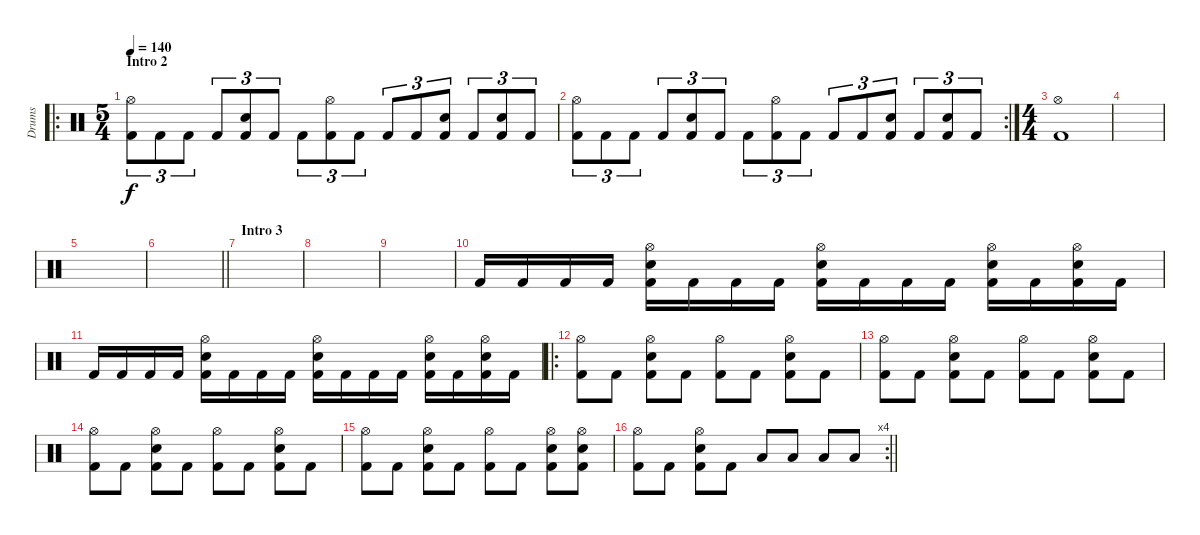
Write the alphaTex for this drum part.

\track ("Drums" "Drums") {instrument percussion}
\staff {score}
\articulation defaults
\ro
\ts (5 4)
\section ("" "Intro 2")
\tempo 140
\clef neutral
\ks c
("Hi-Hat (open)" "Kick (hit) 2").8{tu (3 2) dy f} "Kick (hit) 2".8{tu (3 2)} "Kick (hit) 2".8{tu (3 2)} "Kick (hit) 2".8{tu (3 2)} ("Snare (hit) 2" "Kick (hit) 2").8{tu (3 2)} "Kick (hit) 2".8{tu (3 2)} "Kick (hit) 2".8{tu (3 2)} ("Hi-Hat (open)" "Kick (hit) 2").8{tu (3 2)} "Kick (hit) 2".8{tu (3 2)} "Kick (hit) 2".8{tu (3 2)} "Kick (hit) 2".8{tu (3 2)} ("Snare (hit) 2" "Kick (hit) 2").8{tu (3 2)} "Kick (hit) 2".8{tu (3 2)} ("Snare (hit) 2" "Kick (hit) 2").8{tu (3 2)} "Kick (hit) 2".8{tu (3 2)} |
\rc 2
("Hi-Hat (open)" "Kick (hit) 2").8{tu (3 2)} "Kick (hit) 2".8{tu (3 2)} "Kick (hit) 2".8{tu (3 2)} "Kick (hit) 2".8{tu (3 2)} ("Snare (hit) 2" "Kick (hit) 2").8{tu (3 2)} "Kick (hit) 2".8{tu (3 2)} "Kick (hit) 2".8{tu (3 2)} ("Hi-Hat (open)" "Kick (hit) 2").8{tu (3 2)} "Kick (hit) 2".8{tu (3 2)} "Kick (hit) 2".8{tu (3 2)} "Kick (hit) 2".8{tu (3 2)} ("Snare (hit) 2" "Kick (hit) 2").8{tu (3 2)} "Kick (hit) 2".8{tu (3 2)} ("Snare (hit) 2" "Kick (hit) 2").8{tu (3 2)} "Kick (hit) 2".8{tu (3 2)} |
\ts (4 4)
("Hi-Hat (open)" "Kick (hit) 2").1 |
|
|
\barLineRight lightlight
|
\section ("" "Intro 3")
|
|
|
"Kick (hit) 2".16 "Kick (hit) 2".16 "Kick (hit) 2".16 "Kick (hit) 2".16 ("Hi-Hat (open)" "Snare (hit) 2" "Kick (hit) 2").16 "Kick (hit) 2".16 "Kick (hit) 2".16 "Kick (hit) 2".16 ("Hi-Hat (open)" "Snare (hit) 2" "Kick (hit) 2").16 "Kick (hit) 2".16 "Kick (hit) 2".16 "Kick (hit) 2".16 ("Hi-Hat (open)" "Snare (hit) 2" "Kick (hit) 2").16 "Kick (hit) 2".16 ("Hi-Hat (open)" "Snare (hit) 2" "Kick (hit) 2").16 "Kick (hit) 2".16 |
"Kick (hit) 2".16 "Kick (hit) 2".16 "Kick (hit) 2".16 "Kick (hit) 2".16 ("Hi-Hat (open)" "Snare (hit) 2" "Kick (hit) 2").16 "Kick (hit) 2".16 "Kick (hit) 2".16 "Kick (hit) 2".16 ("Hi-Hat (open)" "Snare (hit) 2" "Kick (hit) 2").16 "Kick (hit) 2".16 "Kick (hit) 2".16 "Kick (hit) 2".16 ("Hi-Hat (open)" "Snare (hit) 2" "Kick (hit) 2").16 "Kick (hit) 2".16 ("Hi-Hat (open)" "Snare (hit) 2" "Kick (hit) 2").16 "Kick (hit) 2".16 |
\ro
("Hi-Hat (open)" "Kick (hit) 2").8 "Kick (hit) 2".8 ("Hi-Hat (open)" "Snare (hit) 2" "Kick (hit) 2").8 "Kick (hit) 2".8 ("Hi-Hat (open)" "Kick (hit) 2").8 "Kick (hit) 2".8 ("Hi-Hat (open)" "Snare (hit) 2" "Kick (hit) 2").8 "Kick (hit) 2".8 |
("Hi-Hat (open)" "Kick (hit) 2").8 "Kick (hit) 2".8 ("Hi-Hat (open)" "Snare (hit) 2" "Kick (hit) 2").8 "Kick (hit) 2".8 ("Hi-Hat (open)" "Kick (hit) 2").8 "Kick (hit) 2".8 ("Hi-Hat (open)" "Snare (hit) 2" "Kick (hit) 2").8 "Kick (hit) 2".8 |
("Hi-Hat (open)" "Kick (hit) 2").8 "Kick (hit) 2".8 ("Hi-Hat (open)" "Snare (hit) 2" "Kick (hit) 2").8 "Kick (hit) 2".8 ("Hi-Hat (open)" "Kick (hit) 2").8 "Kick (hit) 2".8 ("Hi-Hat (open)" "Snare (hit) 2" "Kick (hit) 2").8 "Kick (hit) 2".8 |
("Hi-Hat (open)" "Kick (hit) 2").8 "Kick (hit) 2".8 ("Hi-Hat (open)" "Snare (hit) 2" "Kick (hit) 2").8 "Kick (hit) 2".8 ("Hi-Hat (open)" "Kick (hit) 2").8 "Kick (hit) 2".8 ("Hi-Hat (open)" "Snare (hit) 2" "Kick (hit) 2").8 ("Hi-Hat (open)" "Snare (hit) 2" "Kick (hit) 2").8 |
\rc 4
\barLineRight lightlight
("Hi-Hat (open)" "Kick (hit) 2").8 "Kick (hit) 2".8 ("Hi-Hat (open)" "Snare (hit) 2" "Kick (hit) 2").8 "Kick (hit) 2".8 "Low Tom (hit)".8 "Low Tom (hit)".8 "Low Floor Tom (hit)".8 "Low Floor Tom (hit)".8
